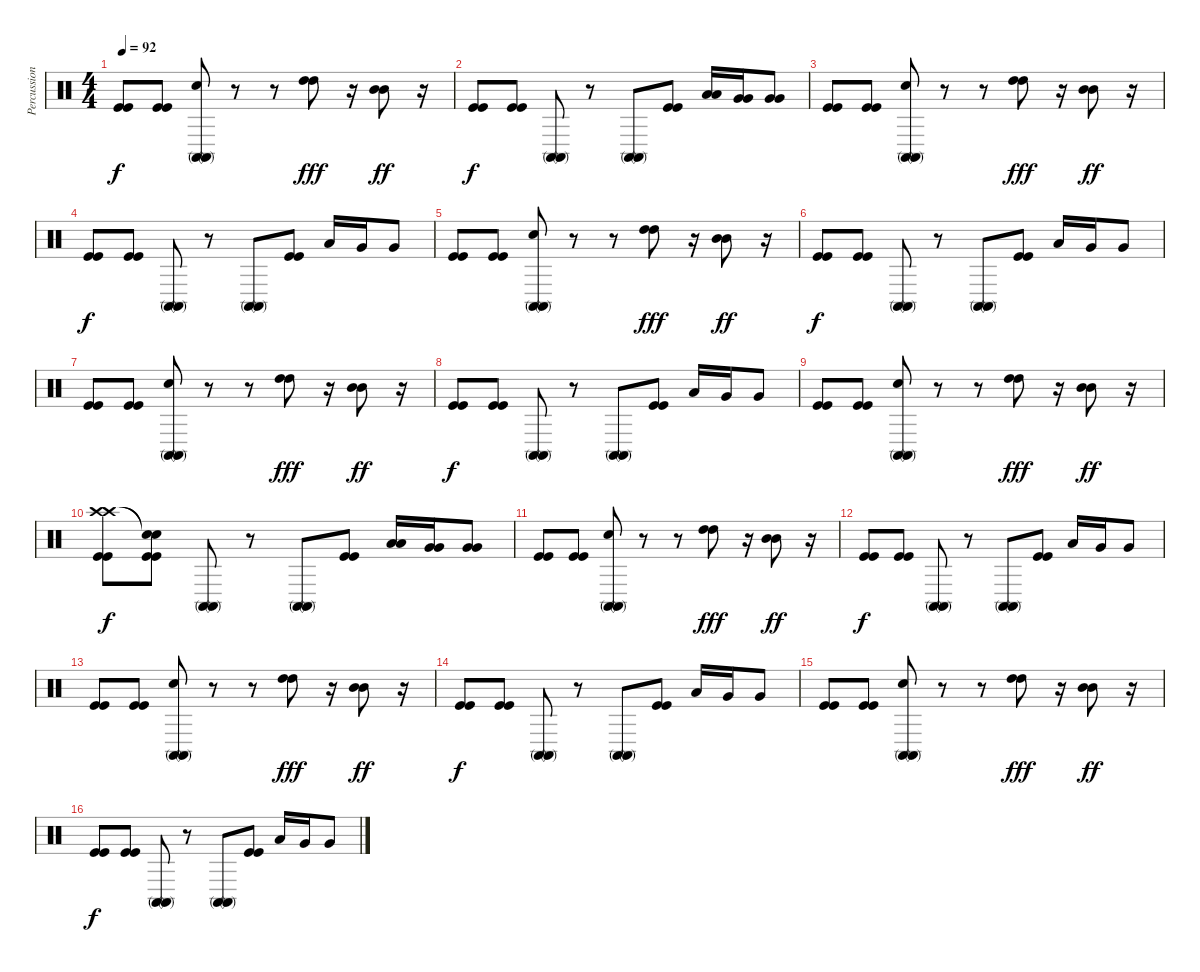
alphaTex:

\track ("Percussion" "Percussion") {instrument percussion}
\staff {score}
\articulation defaults
\ts (4 4)
\tempo 92
\clef neutral
\ks c
("Kick (hit)" "Kick (hit)").8{dy f} ("Kick (hit)" "Kick (hit)").8 ("Conga high (mute)" "Conga high (mute)" "Electric Snare (hit)").8 r.8 r.8 ("High Tom (hit)" "High Tom (hit)").8{dy fff} r.16 ("Mid Tom (hit)" "Mid Tom (hit)").8{dy ff} r.16 |
("Kick (hit)" "Kick (hit)").8{dy f} ("Kick (hit)" "Kick (hit)").8 ("Conga high (mute)" "Conga high (mute)").8 r.8 ("Conga high (mute)" "Conga high (mute)").8 ("Kick (hit)" "Kick (hit)").8 ("Low Tom (hit)" "Low Tom (hit)").16 ("Very Low Tom (hit)" "Very Low Tom (hit)").16 ("Very Low Tom (hit)" "Very Low Tom (hit)").8 |
("Kick (hit)" "Kick (hit)").8 ("Kick (hit)" "Kick (hit)").8 ("Conga high (mute)" "Conga high (mute)" "Electric Snare (hit)").8 r.8 r.8 ("High Tom (hit)" "High Tom (hit)").8{dy fff} r.16 ("Mid Tom (hit)" "Mid Tom (hit)").8{dy ff} r.16 |
("Kick (hit)" "Kick (hit)").8{dy f} ("Kick (hit)" "Kick (hit)").8 ("Conga high (mute)" "Conga high (mute)").8 r.8 ("Conga high (mute)" "Conga high (mute)").8 ("Kick (hit)" "Kick (hit)").8 "Low Tom (hit)".16 "Very Low Tom (hit)".16 "Very Low Tom (hit)".8 |
("Kick (hit)" "Kick (hit)").8 ("Kick (hit)" "Kick (hit)").8 ("Conga high (mute)" "Conga high (mute)" "Electric Snare (hit)").8 r.8 r.8 ("High Tom (hit)" "High Tom (hit)").8{dy fff} r.16 ("Mid Tom (hit)" "Mid Tom (hit)").8{dy ff} r.16 |
("Kick (hit)" "Kick (hit)").8{dy f} ("Kick (hit)" "Kick (hit)").8 ("Conga high (mute)" "Conga high (mute)").8 r.8 ("Conga high (mute)" "Conga high (mute)").8 ("Kick (hit)" "Kick (hit)").8 "Low Tom (hit)".16 "Very Low Tom (hit)".16 "Very Low Tom (hit)".8 |
("Kick (hit)" "Kick (hit)").8 ("Kick (hit)" "Kick (hit)").8 ("Conga high (mute)" "Conga high (mute)" "Electric Snare (hit)").8 r.8 r.8 ("High Tom (hit)" "High Tom (hit)").8{dy fff} r.16 ("Mid Tom (hit)" "Mid Tom (hit)").8{dy ff} r.16 |
("Kick (hit)" "Kick (hit)").8{dy f} ("Kick (hit)" "Kick (hit)").8 ("Conga high (mute)" "Conga high (mute)").8 r.8 ("Conga high (mute)" "Conga high (mute)").8 ("Kick (hit)" "Kick (hit)").8 "Low Tom (hit)".16 "Very Low Tom (hit)".16 "Very Low Tom (hit)".8 |
("Kick (hit)" "Kick (hit)").8 ("Kick (hit)" "Kick (hit)").8 ("Conga high (mute)" "Conga high (mute)" "Electric Snare (hit)").8 r.8 r.8 ("High Tom (hit)" "High Tom (hit)").8{dy fff} r.16 ("Mid Tom (hit)" "Mid Tom (hit)").8{dy ff} r.16 |
("Crash high (hit)" "Crash high (hit)" "Kick (hit)" "Kick (hit)").8{dy f} ("Snare (hit)"{t} "Snare (hit)"{t} "Kick (hit)" "Kick (hit)").8 ("Conga high (mute)" "Conga high (mute)").8 r.8 ("Conga high (mute)" "Conga high (mute)").8 ("Kick (hit)" "Kick (hit)").8 ("Low Tom (hit)" "Low Tom (hit)").16 ("Very Low Tom (hit)" "Very Low Tom (hit)").16 ("Very Low Tom (hit)" "Very Low Tom (hit)").8 |
("Kick (hit)" "Kick (hit)").8 ("Kick (hit)" "Kick (hit)").8 ("Conga high (mute)" "Conga high (mute)" "Electric Snare (hit)").8 r.8 r.8 ("High Tom (hit)" "High Tom (hit)").8{dy fff} r.16 ("Mid Tom (hit)" "Mid Tom (hit)").8{dy ff} r.16 |
("Kick (hit)" "Kick (hit)").8{dy f} ("Kick (hit)" "Kick (hit)").8 ("Conga high (mute)" "Conga high (mute)").8 r.8 ("Conga high (mute)" "Conga high (mute)").8 ("Kick (hit)" "Kick (hit)").8 "Low Tom (hit)".16 "Very Low Tom (hit)".16 "Very Low Tom (hit)".8 |
("Kick (hit)" "Kick (hit)").8 ("Kick (hit)" "Kick (hit)").8 ("Conga high (mute)" "Conga high (mute)" "Electric Snare (hit)").8 r.8 r.8 ("High Tom (hit)" "High Tom (hit)").8{dy fff} r.16 ("Mid Tom (hit)" "Mid Tom (hit)").8{dy ff} r.16 |
("Kick (hit)" "Kick (hit)").8{dy f} ("Kick (hit)" "Kick (hit)").8 ("Conga high (mute)" "Conga high (mute)").8 r.8 ("Conga high (mute)" "Conga high (mute)").8 ("Kick (hit)" "Kick (hit)").8 "Low Tom (hit)".16 "Very Low Tom (hit)".16 "Very Low Tom (hit)".8 |
("Kick (hit)" "Kick (hit)").8 ("Kick (hit)" "Kick (hit)").8 ("Conga high (mute)" "Conga high (mute)" "Electric Snare (hit)").8 r.8 r.8 ("High Tom (hit)" "High Tom (hit)").8{dy fff} r.16 ("Mid Tom (hit)" "Mid Tom (hit)").8{dy ff} r.16 |
("Kick (hit)" "Kick (hit)").8{dy f} ("Kick (hit)" "Kick (hit)").8 ("Conga high (mute)" "Conga high (mute)").8 r.8 ("Conga high (mute)" "Conga high (mute)").8 ("Kick (hit)" "Kick (hit)").8 "Low Tom (hit)".16 "Very Low Tom (hit)".16 "Very Low Tom (hit)".8
